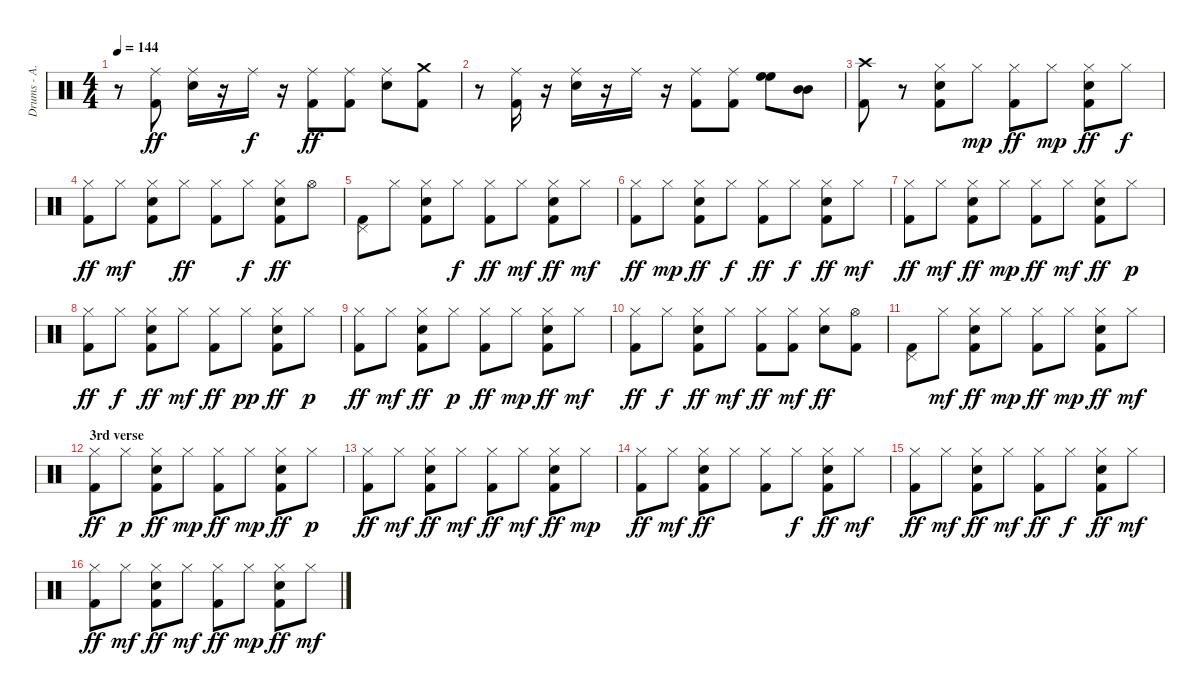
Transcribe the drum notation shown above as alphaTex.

\track ("Drums - A. Van Halen" "Drums - A.") {instrument percussion}
\staff {score}
\articulation defaults
\ts (4 4)
\tempo 144
\clef neutral
\ks c
r.8{dy ff} ("Kick (hit) 2" "Ride (middle)").8 ("Ride (middle)" "Electric Snare (hit)").16 r.16 "Ride (middle)".16{dy f} r.16 ("Kick (hit) 2" "Ride (middle)").8{dy ff} ("Kick (hit) 2" "Ride (middle)").8 ("Ride (middle)" "Electric Snare (hit)").8 ("Crash medium (hit)" "Kick (hit) 2").8 |
r.8 ("Ride (middle)" "Kick (hit) 2").16 r.16 ("Ride (middle)" "Electric Snare (hit)").16 r.16 "Ride (middle)".16 r.16 ("Kick (hit) 2" "Ride (middle)").8 ("Ride (middle)" "Kick (hit) 2").8 ("High Floor Tom (hit)" "High Floor Tom (hit)").8 ("Mid Tom (hit)" "Mid Tom (hit)").8 |
("Kick (hit) 2" "Crash high (hit)").8 r.8 ("Electric Snare (hit)" "Kick (hit) 2" "Hi-Hat (closed)").8 "Hi-Hat (closed)".8{dy mp} ("Kick (hit) 2" "Hi-Hat (closed)").8{dy ff} "Hi-Hat (closed)".8{dy mp} ("Hi-Hat (closed)" "Electric Snare (hit)" "Kick (hit) 2").8{dy ff} "Hi-Hat (closed)".8{dy f} |
("Hi-Hat (closed)" "Kick (hit) 2").8{dy ff} "Hi-Hat (closed)".8{dy mf} ("Kick (hit) 2" "Hi-Hat (closed)" "Electric Snare (hit)").8 "Hi-Hat (closed)".8{dy ff} ("Kick (hit) 2" "Hi-Hat (closed)").8 "Hi-Hat (closed)".8{dy f} ("Kick (hit) 2" "Electric Snare (hit)" "Hi-Hat (closed)").8{dy ff} "Hi-Hat (open)".8 |
("Pedal Hi-Hat (hit)" "Kick (hit) 2").8 "Hi-Hat (closed)".8 ("Electric Snare (hit)" "Kick (hit) 2" "Hi-Hat (closed)").8 "Hi-Hat (closed)".8{dy f} ("Hi-Hat (closed)" "Kick (hit) 2").8{dy ff} "Hi-Hat (closed)".8{dy mf} ("Kick (hit) 2" "Electric Snare (hit)" "Hi-Hat (closed)").8{dy ff} "Hi-Hat (closed)".8{dy mf} |
("Kick (hit) 2" "Hi-Hat (closed)").8{dy ff} "Hi-Hat (closed)".8{dy mp} ("Electric Snare (hit)" "Hi-Hat (closed)" "Kick (hit) 2").8{dy ff} "Hi-Hat (closed)".8{dy f} ("Kick (hit) 2" "Hi-Hat (closed)").8{dy ff} "Hi-Hat (closed)".8{dy f} ("Electric Snare (hit)" "Kick (hit) 2" "Hi-Hat (closed)").8{dy ff} "Hi-Hat (closed)".8{dy mf} |
("Hi-Hat (closed)" "Kick (hit) 2").8{dy ff} "Hi-Hat (closed)".8{dy mf} ("Kick (hit) 2" "Electric Snare (hit)" "Hi-Hat (closed)").8{dy ff} "Hi-Hat (closed)".8{dy mp} ("Kick (hit) 2" "Hi-Hat (closed)").8{dy ff} "Hi-Hat (closed)".8{dy mf} ("Kick (hit) 2" "Hi-Hat (closed)" "Electric Snare (hit)").8{dy ff} "Hi-Hat (closed)".8{dy p} |
("Kick (hit) 2" "Hi-Hat (closed)").8{dy ff} "Hi-Hat (closed)".8{dy f} ("Electric Snare (hit)" "Hi-Hat (closed)" "Kick (hit) 2").8{dy ff} "Hi-Hat (closed)".8{dy mf} ("Kick (hit) 2" "Hi-Hat (closed)").8{dy ff} "Hi-Hat (closed)".8{dy pp} ("Hi-Hat (closed)" "Electric Snare (hit)" "Kick (hit) 2").8{dy ff} "Hi-Hat (closed)".8{dy p} |
("Kick (hit) 2" "Hi-Hat (closed)").8{dy ff} "Hi-Hat (closed)".8{dy mf} ("Hi-Hat (closed)" "Electric Snare (hit)" "Kick (hit) 2").8{dy ff} "Hi-Hat (closed)".8{dy p} ("Hi-Hat (closed)" "Kick (hit) 2").8{dy ff} "Hi-Hat (closed)".8{dy mp} ("Electric Snare (hit)" "Kick (hit) 2" "Hi-Hat (closed)").8{dy ff} "Hi-Hat (closed)".8{dy mf} |
("Kick (hit) 2" "Hi-Hat (closed)").8{dy ff} "Hi-Hat (closed)".8{dy f} ("Electric Snare (hit)" "Hi-Hat (closed)" "Kick (hit) 2").8{dy ff} "Hi-Hat (closed)".8{dy mf} ("Kick (hit) 2" "Hi-Hat (closed)").8{dy ff} ("Kick (hit) 2" "Hi-Hat (closed)").8{dy mf} ("Electric Snare (hit)" "Hi-Hat (closed)").8{dy ff} ("Hi-Hat (open)" "Kick (hit) 2").8 |
("Pedal Hi-Hat (hit)" "Kick (hit) 2").8 "Hi-Hat (closed)".8{dy mf} ("Electric Snare (hit)" "Hi-Hat (closed)" "Kick (hit) 2").8{dy ff} "Hi-Hat (closed)".8{dy mp} ("Hi-Hat (closed)" "Kick (hit) 2").8{dy ff} "Hi-Hat (closed)".8{dy mp} ("Hi-Hat (closed)" "Electric Snare (hit)" "Kick (hit) 2").8{dy ff} "Hi-Hat (closed)".8{dy mf} |
\section ("" "3rd verse")
("Hi-Hat (closed)" "Kick (hit) 2").8{dy ff} "Hi-Hat (closed)".8{dy p} ("Electric Snare (hit)" "Hi-Hat (closed)" "Kick (hit) 2").8{dy ff} "Hi-Hat (closed)".8{dy mp} ("Hi-Hat (closed)" "Kick (hit) 2").8{dy ff} "Hi-Hat (closed)".8{dy mp} ("Electric Snare (hit)" "Hi-Hat (closed)" "Kick (hit) 2").8{dy ff} "Hi-Hat (closed)".8{dy p} |
("Kick (hit) 2" "Hi-Hat (closed)").8{dy ff} "Hi-Hat (closed)".8{dy mf} ("Hi-Hat (closed)" "Electric Snare (hit)" "Kick (hit) 2").8{dy ff} "Hi-Hat (closed)".8{dy mf} ("Kick (hit) 2" "Hi-Hat (closed)").8{dy ff} "Hi-Hat (closed)".8{dy mf} ("Electric Snare (hit)" "Hi-Hat (closed)" "Kick (hit) 2").8{dy ff} "Hi-Hat (closed)".8{dy mp} |
("Hi-Hat (closed)" "Kick (hit) 2").8{dy ff} "Hi-Hat (closed)".8{dy mf} ("Electric Snare (hit)" "Hi-Hat (closed)" "Kick (hit) 2").8{dy ff} "Hi-Hat (closed)".8 ("Hi-Hat (closed)" "Kick (hit) 2").8 "Hi-Hat (closed)".8{dy f} ("Kick (hit) 2" "Electric Snare (hit)" "Hi-Hat (closed)").8{dy ff} "Hi-Hat (closed)".8{dy mf} |
("Kick (hit) 2" "Hi-Hat (closed)").8{dy ff} "Hi-Hat (closed)".8{dy mf} ("Electric Snare (hit)" "Hi-Hat (closed)" "Kick (hit) 2").8{dy ff} "Hi-Hat (closed)".8{dy mf} ("Kick (hit) 2" "Hi-Hat (closed)").8{dy ff} "Hi-Hat (closed)".8{dy f} ("Electric Snare (hit)" "Hi-Hat (closed)" "Kick (hit) 2").8{dy ff} "Hi-Hat (closed)".8{dy mf} |
("Hi-Hat (closed)" "Kick (hit) 2").8{dy ff} "Hi-Hat (closed)".8{dy mf} ("Electric Snare (hit)" "Hi-Hat (closed)" "Kick (hit) 2").8{dy ff} "Hi-Hat (closed)".8{dy mf} ("Hi-Hat (closed)" "Kick (hit) 2").8{dy ff} "Hi-Hat (closed)".8{dy mp} ("Electric Snare (hit)" "Kick (hit) 2" "Hi-Hat (closed)").8{dy ff} "Hi-Hat (closed)".8{dy mf}
